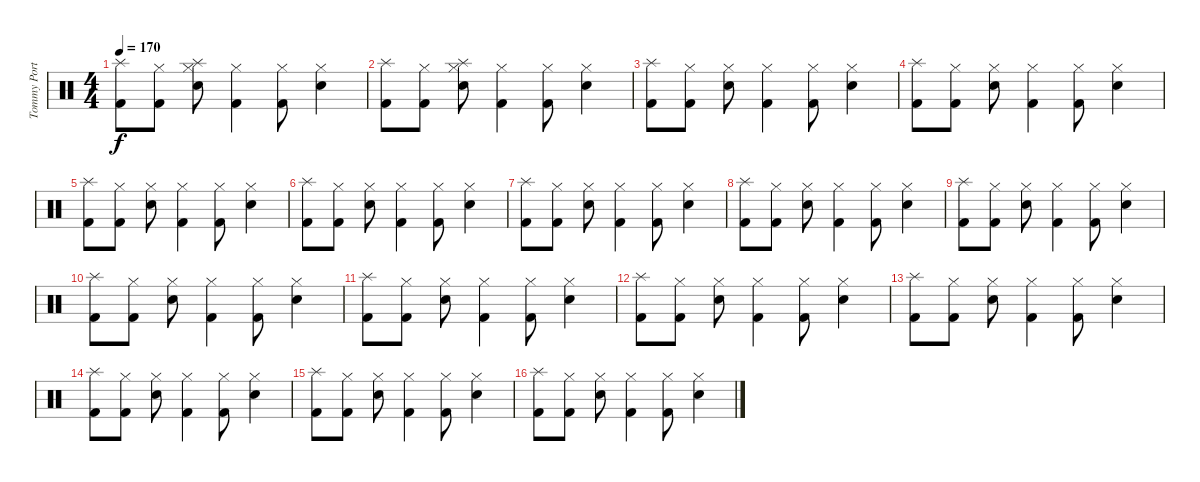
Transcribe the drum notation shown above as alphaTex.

\track ("Tommy Portimo" "Tommy Port") {instrument percussion}
\staff {score}
\articulation defaults
\ts (4 4)
\tempo 170
\clef neutral
\ks c
("Splash (hit)" "Kick (hit) 2").8{dy f} ("Kick (hit) 2" "Hi-Hat (closed)").8 ("Splash (hit)" "Electric Snare (hit)" "Hi-Hat (closed)").8 ("Kick (hit) 2" "Hi-Hat (closed)").4 ("Kick (hit) 2" "Hi-Hat (closed)").8 ("Electric Snare (hit)" "Hi-Hat (closed)").4 |
("Splash (hit)" "Kick (hit) 2").8 ("Kick (hit) 2" "Hi-Hat (closed)").8 ("Splash (hit)" "Electric Snare (hit)" "Hi-Hat (closed)").8 ("Kick (hit) 2" "Hi-Hat (closed)").4 ("Kick (hit) 2" "Hi-Hat (closed)").8 ("Electric Snare (hit)" "Hi-Hat (closed)").4 |
("Splash (hit)" "Kick (hit) 2").8 ("Kick (hit) 2" "Hi-Hat (closed)").8 ("Electric Snare (hit)" "Hi-Hat (closed)").8 ("Kick (hit) 2" "Hi-Hat (closed)").4 ("Kick (hit) 2" "Hi-Hat (closed)").8 ("Electric Snare (hit)" "Hi-Hat (closed)").4 |
("Splash (hit)" "Kick (hit) 2").8 ("Kick (hit) 2" "Hi-Hat (closed)").8 ("Electric Snare (hit)" "Hi-Hat (closed)").8 ("Kick (hit) 2" "Hi-Hat (closed)").4 ("Kick (hit) 2" "Hi-Hat (closed)").8 ("Electric Snare (hit)" "Hi-Hat (closed)").4 |
("Splash (hit)" "Kick (hit) 2").8 ("Kick (hit) 2" "Hi-Hat (closed)").8 ("Electric Snare (hit)" "Hi-Hat (closed)").8 ("Kick (hit) 2" "Hi-Hat (closed)").4 ("Kick (hit) 2" "Hi-Hat (closed)").8 ("Electric Snare (hit)" "Hi-Hat (closed)").4 |
("Splash (hit)" "Kick (hit) 2").8 ("Kick (hit) 2" "Hi-Hat (closed)").8 ("Electric Snare (hit)" "Hi-Hat (closed)").8 ("Kick (hit) 2" "Hi-Hat (closed)").4 ("Kick (hit) 2" "Hi-Hat (closed)").8 ("Electric Snare (hit)" "Hi-Hat (closed)").4 |
("Splash (hit)" "Kick (hit) 2").8 ("Kick (hit) 2" "Hi-Hat (closed)").8 ("Electric Snare (hit)" "Hi-Hat (closed)").8 ("Kick (hit) 2" "Hi-Hat (closed)").4 ("Kick (hit) 2" "Hi-Hat (closed)").8 ("Electric Snare (hit)" "Hi-Hat (closed)").4 |
("Splash (hit)" "Kick (hit) 2").8 ("Kick (hit) 2" "Hi-Hat (closed)").8 ("Electric Snare (hit)" "Hi-Hat (closed)").8 ("Kick (hit) 2" "Hi-Hat (closed)").4 ("Kick (hit) 2" "Hi-Hat (closed)").8 ("Electric Snare (hit)" "Hi-Hat (closed)").4 |
("Splash (hit)" "Kick (hit) 2").8 ("Kick (hit) 2" "Hi-Hat (closed)").8 ("Electric Snare (hit)" "Hi-Hat (closed)").8 ("Kick (hit) 2" "Hi-Hat (closed)").4 ("Kick (hit) 2" "Hi-Hat (closed)").8 ("Electric Snare (hit)" "Hi-Hat (closed)").4 |
("Splash (hit)" "Kick (hit) 2").8 ("Kick (hit) 2" "Hi-Hat (closed)").8 ("Electric Snare (hit)" "Hi-Hat (closed)").8 ("Kick (hit) 2" "Hi-Hat (closed)").4 ("Kick (hit) 2" "Hi-Hat (closed)").8 ("Electric Snare (hit)" "Hi-Hat (closed)").4 |
("Splash (hit)" "Kick (hit) 2").8 ("Kick (hit) 2" "Hi-Hat (closed)").8 ("Electric Snare (hit)" "Hi-Hat (closed)").8 ("Kick (hit) 2" "Hi-Hat (closed)").4 ("Kick (hit) 2" "Hi-Hat (closed)").8 ("Electric Snare (hit)" "Hi-Hat (closed)").4 |
("Splash (hit)" "Kick (hit) 2").8 ("Kick (hit) 2" "Hi-Hat (closed)").8 ("Electric Snare (hit)" "Hi-Hat (closed)").8 ("Kick (hit) 2" "Hi-Hat (closed)").4 ("Kick (hit) 2" "Hi-Hat (closed)").8 ("Electric Snare (hit)" "Hi-Hat (closed)").4 |
("Splash (hit)" "Kick (hit) 2").8 ("Kick (hit) 2" "Hi-Hat (closed)").8 ("Electric Snare (hit)" "Hi-Hat (closed)").8 ("Kick (hit) 2" "Hi-Hat (closed)").4 ("Kick (hit) 2" "Hi-Hat (closed)").8 ("Electric Snare (hit)" "Hi-Hat (closed)").4 |
("Splash (hit)" "Kick (hit) 2").8 ("Kick (hit) 2" "Hi-Hat (closed)").8 ("Electric Snare (hit)" "Hi-Hat (closed)").8 ("Kick (hit) 2" "Hi-Hat (closed)").4 ("Kick (hit) 2" "Hi-Hat (closed)").8 ("Electric Snare (hit)" "Hi-Hat (closed)").4 |
("Splash (hit)" "Kick (hit) 2").8 ("Kick (hit) 2" "Hi-Hat (closed)").8 ("Electric Snare (hit)" "Hi-Hat (closed)").8 ("Kick (hit) 2" "Hi-Hat (closed)").4 ("Kick (hit) 2" "Hi-Hat (closed)").8 ("Electric Snare (hit)" "Hi-Hat (closed)").4 |
("Splash (hit)" "Kick (hit) 2").8 ("Kick (hit) 2" "Hi-Hat (closed)").8 ("Electric Snare (hit)" "Hi-Hat (closed)").8 ("Kick (hit) 2" "Hi-Hat (closed)").4 ("Kick (hit) 2" "Hi-Hat (closed)").8 ("Electric Snare (hit)" "Hi-Hat (closed)").4
